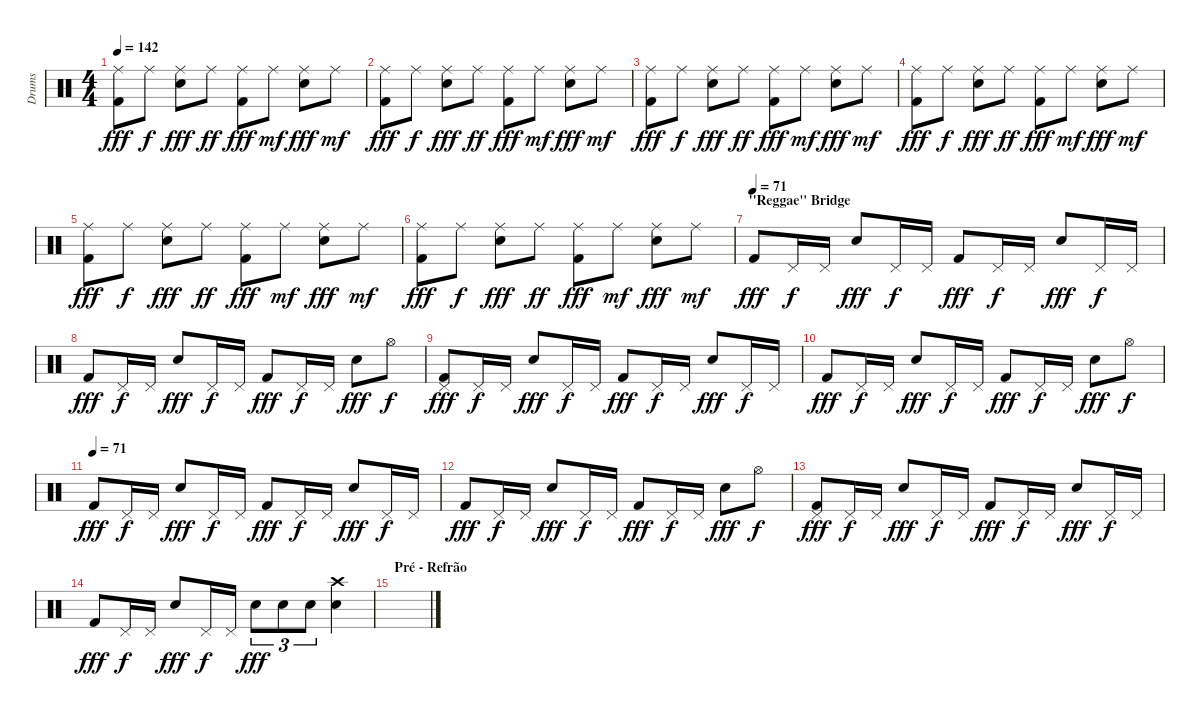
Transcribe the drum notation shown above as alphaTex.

\track ("Drums" "Drums") {instrument percussion}
\staff {score}
\articulation defaults
\ts (4 4)
\tempo 142
\clef neutral
\ks c
("Ride (middle)" "Kick (hit) 2").8{dy fff} "Ride (middle)".8{dy f} ("Ride (middle)" "Electric Snare (hit)").8{dy fff} "Ride (middle)".8{dy ff} ("Ride (middle)" "Kick (hit) 2").8{dy fff} "Ride (middle)".8{dy mf} ("Ride (middle)" "Electric Snare (hit)").8{dy fff} "Ride (middle)".8{dy mf} |
("Ride (middle)" "Kick (hit) 2").8{dy fff} "Ride (middle)".8{dy f} ("Ride (middle)" "Electric Snare (hit)").8{dy fff} "Ride (middle)".8{dy ff} ("Ride (middle)" "Kick (hit) 2").8{dy fff} "Ride (middle)".8{dy mf} ("Ride (middle)" "Electric Snare (hit)").8{dy fff} "Ride (middle)".8{dy mf} |
("Ride (middle)" "Kick (hit) 2").8{dy fff} "Ride (middle)".8{dy f} ("Ride (middle)" "Electric Snare (hit)").8{dy fff} "Ride (middle)".8{dy ff} ("Ride (middle)" "Kick (hit) 2").8{dy fff} "Ride (middle)".8{dy mf} ("Ride (middle)" "Electric Snare (hit)").8{dy fff} "Ride (middle)".8{dy mf} |
("Ride (middle)" "Kick (hit) 2").8{dy fff} "Ride (middle)".8{dy f} ("Ride (middle)" "Electric Snare (hit)").8{dy fff} "Ride (middle)".8{dy ff} ("Ride (middle)" "Kick (hit) 2").8{dy fff} "Ride (middle)".8{dy mf} ("Ride (middle)" "Electric Snare (hit)").8{dy fff} "Ride (middle)".8{dy mf} |
("Ride (middle)" "Kick (hit) 2").8{dy fff} "Ride (middle)".8{dy f} ("Ride (middle)" "Electric Snare (hit)").8{dy fff} "Ride (middle)".8{dy ff} ("Ride (middle)" "Kick (hit) 2").8{dy fff} "Ride (middle)".8{dy mf} ("Ride (middle)" "Electric Snare (hit)").8{dy fff} "Ride (middle)".8{dy mf} |
("Ride (middle)" "Kick (hit) 2").8{dy fff} "Ride (middle)".8{dy f} ("Ride (middle)" "Electric Snare (hit)").8{dy fff} "Ride (middle)".8{dy ff} ("Ride (middle)" "Kick (hit) 2").8{dy fff} "Ride (middle)".8{dy mf} ("Ride (middle)" "Electric Snare (hit)").8{dy fff} "Ride (middle)".8{dy mf} |
\section ("" "''Reggae'' Bridge")
\tempo (71)
"Kick (hit) 2".8{dy fff} "Pedal Hi-Hat (hit)".16{dy f} "Pedal Hi-Hat (hit)".16 "Electric Snare (hit)".8{dy fff} "Pedal Hi-Hat (hit)".16{dy f} "Pedal Hi-Hat (hit)".16 "Kick (hit) 2".8{dy fff} "Pedal Hi-Hat (hit)".16{dy f} "Pedal Hi-Hat (hit)".16 "Electric Snare (hit)".8{dy fff} "Pedal Hi-Hat (hit)".16{dy f} "Pedal Hi-Hat (hit)".16 |
"Kick (hit) 2".8{dy fff} "Pedal Hi-Hat (hit)".16{dy f} "Pedal Hi-Hat (hit)".16 "Electric Snare (hit)".8{dy fff} "Pedal Hi-Hat (hit)".16{dy f} "Pedal Hi-Hat (hit)".16 "Kick (hit) 2".8{dy fff} "Pedal Hi-Hat (hit)".16{dy f} "Pedal Hi-Hat (hit)".16 "Electric Snare (hit)".8{dy fff} "Hi-Hat (open)".8{dy f} |
("Kick (hit) 2" "Pedal Hi-Hat (hit)").8{dy fff} "Pedal Hi-Hat (hit)".16{dy f} "Pedal Hi-Hat (hit)".16 "Electric Snare (hit)".8{dy fff} "Pedal Hi-Hat (hit)".16{dy f} "Pedal Hi-Hat (hit)".16 "Kick (hit) 2".8{dy fff} "Pedal Hi-Hat (hit)".16{dy f} "Pedal Hi-Hat (hit)".16 "Electric Snare (hit)".8{dy fff} "Pedal Hi-Hat (hit)".16{dy f} "Pedal Hi-Hat (hit)".16 |
"Kick (hit) 2".8{dy fff} "Pedal Hi-Hat (hit)".16{dy f} "Pedal Hi-Hat (hit)".16 "Electric Snare (hit)".8{dy fff} "Pedal Hi-Hat (hit)".16{dy f} "Pedal Hi-Hat (hit)".16 "Kick (hit) 2".8{dy fff} "Pedal Hi-Hat (hit)".16{dy f} "Pedal Hi-Hat (hit)".16 "Electric Snare (hit)".8{dy fff} "Hi-Hat (open)".8{dy f} |
\tempo (71)
"Kick (hit) 2".8{dy fff} "Pedal Hi-Hat (hit)".16{dy f} "Pedal Hi-Hat (hit)".16 "Electric Snare (hit)".8{dy fff} "Pedal Hi-Hat (hit)".16{dy f} "Pedal Hi-Hat (hit)".16 "Kick (hit) 2".8{dy fff} "Pedal Hi-Hat (hit)".16{dy f} "Pedal Hi-Hat (hit)".16 "Electric Snare (hit)".8{dy fff} "Pedal Hi-Hat (hit)".16{dy f} "Pedal Hi-Hat (hit)".16 |
"Kick (hit) 2".8{dy fff} "Pedal Hi-Hat (hit)".16{dy f} "Pedal Hi-Hat (hit)".16 "Electric Snare (hit)".8{dy fff} "Pedal Hi-Hat (hit)".16{dy f} "Pedal Hi-Hat (hit)".16 "Kick (hit) 2".8{dy fff} "Pedal Hi-Hat (hit)".16{dy f} "Pedal Hi-Hat (hit)".16 "Electric Snare (hit)".8{dy fff} "Hi-Hat (open)".8{dy f} |
("Kick (hit) 2" "Pedal Hi-Hat (hit)").8{dy fff} "Pedal Hi-Hat (hit)".16{dy f} "Pedal Hi-Hat (hit)".16 "Electric Snare (hit)".8{dy fff} "Pedal Hi-Hat (hit)".16{dy f} "Pedal Hi-Hat (hit)".16 "Kick (hit) 2".8{dy fff} "Pedal Hi-Hat (hit)".16{dy f} "Pedal Hi-Hat (hit)".16 "Electric Snare (hit)".8{dy fff} "Pedal Hi-Hat (hit)".16{dy f} "Pedal Hi-Hat (hit)".16 |
"Kick (hit) 2".8{dy fff} "Pedal Hi-Hat (hit)".16{dy f} "Pedal Hi-Hat (hit)".16 "Electric Snare (hit)".8{dy fff} "Pedal Hi-Hat (hit)".16{dy f} "Pedal Hi-Hat (hit)".16 "Electric Snare (hit)".8{tu (3 2) dy fff} "Electric Snare (hit)".8{tu (3 2)} "Electric Snare (hit)".8{tu (3 2)} ("Electric Snare (hit)" "Crash high (hit)").4 |
\section ("" "Pré - Refrão")
